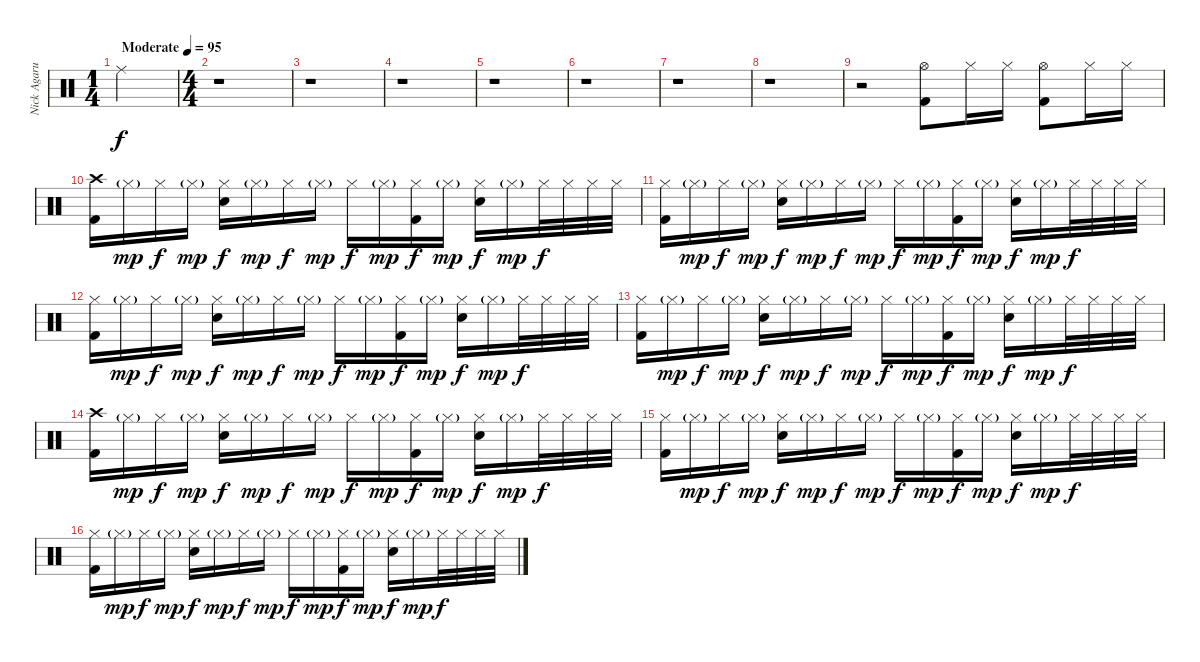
\track ("Nick Agarua" "Nick Agaru") {instrument percussion}
\staff {score}
\articulation defaults
\ts (1 4)
\tempo (95 "Moderate")
\clef neutral
\ks c "Ride (middle)".4{dy f}
|
\ts (4 4)
r.1 |
r.1 |
r.1 |
r.1 |
r.1 |
r.1 |
r.1 |
r.2 ("Hi-Hat (open)" "Kick (hit) 2").8 "Hi-Hat (closed)".16 "Hi-Hat (closed)".16 ("Hi-Hat (open)" "Kick (hit) 2").8 "Hi-Hat (closed)".16 "Hi-Hat (closed)".16 |
("Crash high (hit)" "Kick (hit) 2").16 "Hi-Hat (closed)"{g}.16{dy mp} "Hi-Hat (closed)".16{dy f} "Hi-Hat (closed)"{g}.16{dy mp} ("Hi-Hat (closed)" "Electric Snare (hit)").16{dy f} "Hi-Hat (closed)"{g}.16{dy mp} "Hi-Hat (closed)".16{dy f} "Hi-Hat (closed)"{g}.16{dy mp} "Hi-Hat (closed)".16{dy f} "Hi-Hat (closed)"{g}.16{dy mp} ("Hi-Hat (closed)" "Kick (hit) 2").16{dy f} "Hi-Hat (closed)"{g}.16{dy mp} ("Hi-Hat (closed)" "Electric Snare (hit)").16{dy f} "Hi-Hat (closed)"{g}.16{dy mp} "Hi-Hat (closed)".32{dy f} "Hi-Hat (closed)".32 "Hi-Hat (closed)".32 "Hi-Hat (closed)".32 |
("Hi-Hat (closed)" "Kick (hit) 2").16 "Hi-Hat (closed)"{g}.16{dy mp} "Hi-Hat (closed)".16{dy f} "Hi-Hat (closed)"{g}.16{dy mp} ("Hi-Hat (closed)" "Electric Snare (hit)").16{dy f} "Hi-Hat (closed)"{g}.16{dy mp} "Hi-Hat (closed)".16{dy f} "Hi-Hat (closed)"{g}.16{dy mp} "Hi-Hat (closed)".16{dy f} "Hi-Hat (closed)"{g}.16{dy mp} ("Hi-Hat (closed)" "Kick (hit) 2").16{dy f} "Hi-Hat (closed)"{g}.16{dy mp} ("Hi-Hat (closed)" "Electric Snare (hit)").16{dy f} "Hi-Hat (closed)"{g}.16{dy mp} "Hi-Hat (closed)".32{dy f} "Hi-Hat (closed)".32 "Hi-Hat (closed)".32 "Hi-Hat (closed)".32 |
("Hi-Hat (closed)" "Kick (hit) 2").16 "Hi-Hat (closed)"{g}.16{dy mp} "Hi-Hat (closed)".16{dy f} "Hi-Hat (closed)"{g}.16{dy mp} ("Hi-Hat (closed)" "Electric Snare (hit)").16{dy f} "Hi-Hat (closed)"{g}.16{dy mp} "Hi-Hat (closed)".16{dy f} "Hi-Hat (closed)"{g}.16{dy mp} "Hi-Hat (closed)".16{dy f} "Hi-Hat (closed)"{g}.16{dy mp} ("Hi-Hat (closed)" "Kick (hit) 2").16{dy f} "Hi-Hat (closed)"{g}.16{dy mp} ("Hi-Hat (closed)" "Electric Snare (hit)").16{dy f} "Hi-Hat (closed)"{g}.16{dy mp} "Hi-Hat (closed)".32{dy f} "Hi-Hat (closed)".32 "Hi-Hat (closed)".32 "Hi-Hat (closed)".32 |
("Hi-Hat (closed)" "Kick (hit) 2").16 "Hi-Hat (closed)"{g}.16{dy mp} "Hi-Hat (closed)".16{dy f} "Hi-Hat (closed)"{g}.16{dy mp} ("Hi-Hat (closed)" "Electric Snare (hit)").16{dy f} "Hi-Hat (closed)"{g}.16{dy mp} "Hi-Hat (closed)".16{dy f} "Hi-Hat (closed)"{g}.16{dy mp} "Hi-Hat (closed)".16{dy f} "Hi-Hat (closed)"{g}.16{dy mp} ("Hi-Hat (closed)" "Kick (hit) 2").16{dy f} "Hi-Hat (closed)"{g}.16{dy mp} ("Hi-Hat (closed)" "Electric Snare (hit)").16{dy f} "Hi-Hat (closed)"{g}.16{dy mp} "Hi-Hat (closed)".32{dy f} "Hi-Hat (closed)".32 "Hi-Hat (closed)".32 "Hi-Hat (closed)".32 |
("Crash high (hit)" "Kick (hit) 2").16 "Hi-Hat (closed)"{g}.16{dy mp} "Hi-Hat (closed)".16{dy f} "Hi-Hat (closed)"{g}.16{dy mp} ("Hi-Hat (closed)" "Electric Snare (hit)").16{dy f} "Hi-Hat (closed)"{g}.16{dy mp} "Hi-Hat (closed)".16{dy f} "Hi-Hat (closed)"{g}.16{dy mp} "Hi-Hat (closed)".16{dy f} "Hi-Hat (closed)"{g}.16{dy mp} ("Hi-Hat (closed)" "Kick (hit) 2").16{dy f} "Hi-Hat (closed)"{g}.16{dy mp} ("Hi-Hat (closed)" "Electric Snare (hit)").16{dy f} "Hi-Hat (closed)"{g}.16{dy mp} "Hi-Hat (closed)".32{dy f} "Hi-Hat (closed)".32 "Hi-Hat (closed)".32 "Hi-Hat (closed)".32 |
("Hi-Hat (closed)" "Kick (hit) 2").16 "Hi-Hat (closed)"{g}.16{dy mp} "Hi-Hat (closed)".16{dy f} "Hi-Hat (closed)"{g}.16{dy mp} ("Hi-Hat (closed)" "Electric Snare (hit)").16{dy f} "Hi-Hat (closed)"{g}.16{dy mp} "Hi-Hat (closed)".16{dy f} "Hi-Hat (closed)"{g}.16{dy mp} "Hi-Hat (closed)".16{dy f} "Hi-Hat (closed)"{g}.16{dy mp} ("Hi-Hat (closed)" "Kick (hit) 2").16{dy f} "Hi-Hat (closed)"{g}.16{dy mp} ("Hi-Hat (closed)" "Electric Snare (hit)").16{dy f} "Hi-Hat (closed)"{g}.16{dy mp} "Hi-Hat (closed)".32{dy f} "Hi-Hat (closed)".32 "Hi-Hat (closed)".32 "Hi-Hat (closed)".32 |
("Hi-Hat (closed)" "Kick (hit) 2").16 "Hi-Hat (closed)"{g}.16{dy mp} "Hi-Hat (closed)".16{dy f} "Hi-Hat (closed)"{g}.16{dy mp} ("Hi-Hat (closed)" "Electric Snare (hit)").16{dy f} "Hi-Hat (closed)"{g}.16{dy mp} "Hi-Hat (closed)".16{dy f} "Hi-Hat (closed)"{g}.16{dy mp} "Hi-Hat (closed)".16{dy f} "Hi-Hat (closed)"{g}.16{dy mp} ("Hi-Hat (closed)" "Kick (hit) 2").16{dy f} "Hi-Hat (closed)"{g}.16{dy mp} ("Hi-Hat (closed)" "Electric Snare (hit)").16{dy f} "Hi-Hat (closed)"{g}.16{dy mp} "Hi-Hat (closed)".32{dy f} "Hi-Hat (closed)".32 "Hi-Hat (closed)".32 "Hi-Hat (closed)".32
